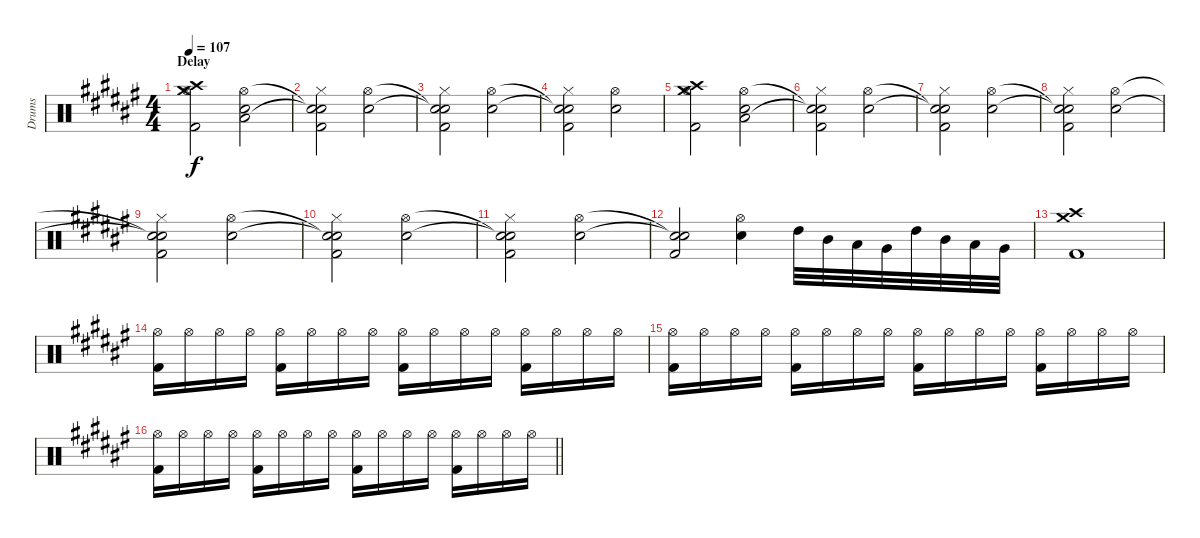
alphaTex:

\track ("Drums" "Drums") {instrument percussion}
\staff {score}
\articulation defaults
\ts (4 4)
\section ("" "Delay")
\tempo 107
\clef neutral
\ks f#
("Crash high (hit)" "Crash medium (hit)" "Hi-Hat (open)" "Kick (hit) 2").2{dy f} ("Low Floor Tom (hit)" "Hi-Hat (open)" "Snare (hit) 2").2 |
("Snare (hit)"{t} "Snare (hit)"{t} "Hi-Hat (closed)" "Kick (hit) 2").2 ("Hi-Hat (open)" "Snare (hit) 2").2 |
("Snare (hit)"{t} "Snare (hit)"{t} "Hi-Hat (closed)" "Kick (hit) 2").2 ("Hi-Hat (open)" "Snare (hit) 2").2 |
("Snare (hit)"{t} "Snare (hit)"{t} "Hi-Hat (closed)" "Kick (hit) 2").2 ("Hi-Hat (open)" "Snare (hit) 2").2 |
("Crash high (hit)" "Crash medium (hit)" "Hi-Hat (open)" "Kick (hit) 2").2 ("Low Floor Tom (hit)" "Hi-Hat (open)" "Snare (hit) 2").2 |
("Snare (hit)"{t} "Snare (hit)"{t} "Hi-Hat (closed)" "Kick (hit) 2").2 ("Hi-Hat (open)" "Snare (hit) 2").2 |
("Snare (hit)"{t} "Snare (hit)"{t} "Hi-Hat (closed)" "Kick (hit) 2").2 ("Hi-Hat (open)" "Snare (hit) 2").2 |
("Snare (hit)"{t} "Snare (hit)"{t} "Hi-Hat (closed)" "Kick (hit) 2").2 ("Hi-Hat (open)" "Snare (hit) 2").2 |
("Snare (hit)"{t} "Snare (hit)"{t} "Hi-Hat (closed)" "Kick (hit) 2").2 ("Hi-Hat (open)" "Snare (hit) 2").2 |
("Snare (hit)"{t} "Snare (hit)"{t} "Hi-Hat (closed)" "Kick (hit) 2").2 ("Hi-Hat (open)" "Snare (hit) 2").2 |
("Snare (hit)"{t} "Snare (hit)"{t} "Hi-Hat (closed)" "Kick (hit) 2").2 ("Hi-Hat (open)" "Snare (hit) 2").2 |
("Snare (hit)"{t} "Snare (hit)"{t} "Kick (hit) 2").2 ("Hi-Hat (open)" "Snare (hit) 2").4 "High Tom (hit)".32 "Mid Tom (hit)".32 "Low Tom (hit)".32 "Very Low Tom (hit)".32 "High Tom (hit)".32 "Mid Tom (hit)".32 "Low Tom (hit)".32 "Very Low Tom (hit)".32 |
("Crash high (hit)" "Crash medium (hit)" "Kick (hit) 2").1 |
("Hi-Hat (open)" "Kick (hit) 2").16 "Hi-Hat (open)".16 "Hi-Hat (open)".16 "Hi-Hat (open)".16 ("Hi-Hat (open)" "Kick (hit) 2").16 "Hi-Hat (open)".16 "Hi-Hat (open)".16 "Hi-Hat (open)".16 ("Hi-Hat (open)" "Kick (hit) 2").16 "Hi-Hat (open)".16 "Hi-Hat (open)".16 "Hi-Hat (open)".16 ("Hi-Hat (open)" "Kick (hit) 2").16 "Hi-Hat (open)".16 "Hi-Hat (open)".16 "Hi-Hat (open)".16 |
("Hi-Hat (open)" "Kick (hit) 2").16 "Hi-Hat (open)".16 "Hi-Hat (open)".16 "Hi-Hat (open)".16 ("Hi-Hat (open)" "Kick (hit) 2").16 "Hi-Hat (open)".16 "Hi-Hat (open)".16 "Hi-Hat (open)".16 ("Hi-Hat (open)" "Kick (hit) 2").16 "Hi-Hat (open)".16 "Hi-Hat (open)".16 "Hi-Hat (open)".16 ("Hi-Hat (open)" "Kick (hit) 2").16 "Hi-Hat (open)".16 "Hi-Hat (open)".16 "Hi-Hat (open)".16 |
\barLineRight lightlight
("Hi-Hat (open)" "Kick (hit) 2").16 "Hi-Hat (open)".16 "Hi-Hat (open)".16 "Hi-Hat (open)".16 ("Hi-Hat (open)" "Kick (hit) 2").16 "Hi-Hat (open)".16 "Hi-Hat (open)".16 "Hi-Hat (open)".16 ("Hi-Hat (open)" "Kick (hit) 2").16 "Hi-Hat (open)".16 "Hi-Hat (open)".16 "Hi-Hat (open)".16 ("Hi-Hat (open)" "Kick (hit) 2").16 "Hi-Hat (open)".16 "Hi-Hat (open)".16 "Hi-Hat (open)".16
